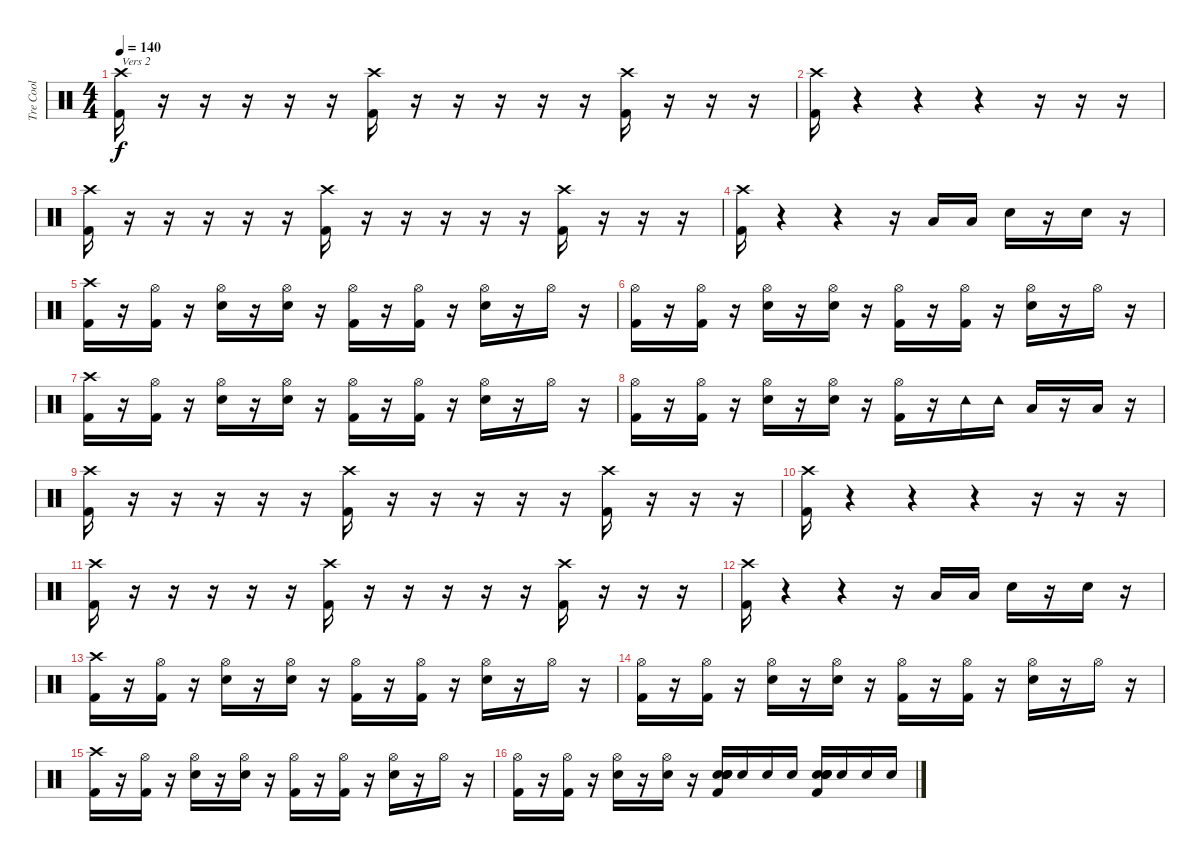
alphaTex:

\track ("Tre Cool" "Tre Cool") {instrument percussion}
\staff {score}
\articulation defaults
\ts (4 4)
\tempo 140
\clef neutral
\ks c
("Crash high (hit)" "Kick (hit) 2").16{txt "Vers 2" dy f} r.16 r.16 r.16 r.16 r.16 ("Crash high (hit)" "Kick (hit) 2").16 r.16 r.16 r.16 r.16 r.16 ("Crash high (hit)" "Kick (hit) 2").16 r.16 r.16 r.16 |
("Crash high (hit)" "Kick (hit) 2").16 r.4 r.4 r.4 r.16 r.16 r.16 |
("Crash high (hit)" "Kick (hit) 2").16 r.16 r.16 r.16 r.16 r.16 ("Crash high (hit)" "Kick (hit) 2").16 r.16 r.16 r.16 r.16 r.16 ("Crash high (hit)" "Kick (hit) 2").16 r.16 r.16 r.16 |
("Crash high (hit)" "Kick (hit) 2").16 r.4 r.4 r.16 "Low Floor Tom (hit)".16 "Low Floor Tom (hit)".16 "Snare (hit) 2".16 r.16 "Snare (hit) 2".16 r.16 |
("Crash high (hit)" "Kick (hit) 2").16 r.16 ("Hi-Hat (open)" "Kick (hit) 2").16 r.16 ("Hi-Hat (open)" "Snare (hit) 2").16 r.16 ("Hi-Hat (open)" "Snare (hit) 2").16 r.16 ("Hi-Hat (open)" "Kick (hit) 2").16 r.16 ("Hi-Hat (open)" "Kick (hit) 2").16 r.16 ("Hi-Hat (open)" "Snare (hit) 2").16 r.16 "Hi-Hat (open)".16 r.16 |
("Hi-Hat (open)" "Kick (hit) 2").16 r.16 ("Hi-Hat (open)" "Kick (hit) 2").16 r.16 ("Hi-Hat (open)" "Snare (hit) 2").16 r.16 ("Hi-Hat (open)" "Snare (hit) 2").16 r.16 ("Hi-Hat (open)" "Kick (hit) 2").16 r.16 ("Hi-Hat (open)" "Kick (hit) 2").16 r.16 ("Hi-Hat (open)" "Snare (hit) 2").16 r.16 "Hi-Hat (open)".16 r.16 |
("Crash high (hit)" "Kick (hit) 2").16 r.16 ("Hi-Hat (open)" "Kick (hit) 2").16 r.16 ("Hi-Hat (open)" "Snare (hit) 2").16 r.16 ("Hi-Hat (open)" "Snare (hit) 2").16 r.16 ("Hi-Hat (open)" "Kick (hit) 2").16 r.16 ("Hi-Hat (open)" "Kick (hit) 2").16 r.16 ("Hi-Hat (open)" "Snare (hit) 2").16 r.16 "Hi-Hat (open)".16 r.16 |
("Hi-Hat (open)" "Kick (hit) 2").16 r.16 ("Hi-Hat (open)" "Kick (hit) 2").16 r.16 ("Hi-Hat (open)" "Snare (hit) 2").16 r.16 ("Hi-Hat (open)" "Snare (hit) 2").16 r.16 ("Hi-Hat (open)" "Kick (hit) 2").16 r.16 "Tambourine (hit)".16 "Tambourine (hit)".16 "Low Floor Tom (hit)".16 r.16 "Low Floor Tom (hit)".16 r.16 |
("Crash high (hit)" "Kick (hit) 2").16 r.16 r.16 r.16 r.16 r.16 ("Crash high (hit)" "Kick (hit) 2").16 r.16 r.16 r.16 r.16 r.16 ("Crash high (hit)" "Kick (hit) 2").16 r.16 r.16 r.16 |
("Crash high (hit)" "Kick (hit) 2").16 r.4 r.4 r.4 r.16 r.16 r.16 |
("Crash high (hit)" "Kick (hit) 2").16 r.16 r.16 r.16 r.16 r.16 ("Crash high (hit)" "Kick (hit) 2").16 r.16 r.16 r.16 r.16 r.16 ("Crash high (hit)" "Kick (hit) 2").16 r.16 r.16 r.16 |
("Crash high (hit)" "Kick (hit) 2").16 r.4 r.4 r.16 "Low Floor Tom (hit)".16 "Low Floor Tom (hit)".16 "Snare (hit) 2".16 r.16 "Snare (hit) 2".16 r.16 |
("Crash high (hit)" "Kick (hit) 2").16 r.16 ("Hi-Hat (open)" "Kick (hit) 2").16 r.16 ("Hi-Hat (open)" "Snare (hit) 2").16 r.16 ("Hi-Hat (open)" "Snare (hit) 2").16 r.16 ("Hi-Hat (open)" "Kick (hit) 2").16 r.16 ("Hi-Hat (open)" "Kick (hit) 2").16 r.16 ("Hi-Hat (open)" "Snare (hit) 2").16 r.16 "Hi-Hat (open)".16 r.16 |
("Hi-Hat (open)" "Kick (hit) 2").16 r.16 ("Hi-Hat (open)" "Kick (hit) 2").16 r.16 ("Hi-Hat (open)" "Snare (hit) 2").16 r.16 ("Hi-Hat (open)" "Snare (hit) 2").16 r.16 ("Hi-Hat (open)" "Kick (hit) 2").16 r.16 ("Hi-Hat (open)" "Kick (hit) 2").16 r.16 ("Hi-Hat (open)" "Snare (hit) 2").16 r.16 "Hi-Hat (open)".16 r.16 |
("Crash high (hit)" "Kick (hit) 2").16 r.16 ("Hi-Hat (open)" "Kick (hit) 2").16 r.16 ("Hi-Hat (open)" "Snare (hit) 2").16 r.16 ("Hi-Hat (open)" "Snare (hit) 2").16 r.16 ("Hi-Hat (open)" "Kick (hit) 2").16 r.16 ("Hi-Hat (open)" "Kick (hit) 2").16 r.16 ("Hi-Hat (open)" "Snare (hit) 2").16 r.16 "Hi-Hat (open)".16 r.16 |
("Hi-Hat (open)" "Kick (hit) 2").16 r.16 ("Hi-Hat (open)" "Kick (hit) 2").16 r.16 ("Hi-Hat (open)" "Snare (hit) 2").16 r.16 ("Hi-Hat (open)" "Snare (hit) 2").16 r.16 ("Snare (hit) 2" "Snare (hit) 2" "Snare (hit) 2" "Snare (hit) 2" "Kick (hit) 2").16 "Snare (hit) 2".16 "Snare (hit) 2".16 "Snare (hit) 2".16 ("Snare (hit) 2" "Snare (hit) 2" "Snare (hit) 2" "Snare (hit) 2" "Kick (hit) 2").16 "Snare (hit) 2".16 "Snare (hit) 2".16 "Snare (hit) 2".16
